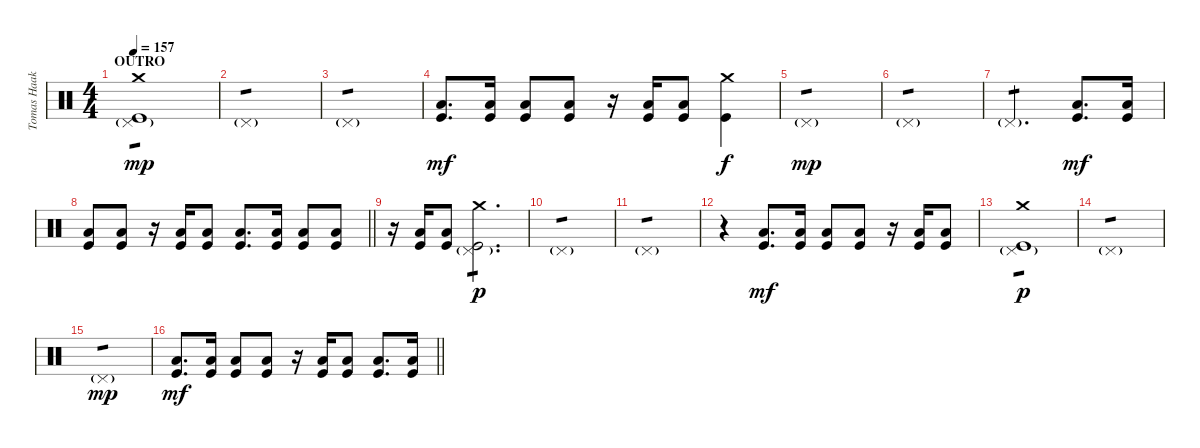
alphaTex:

\track ("Tomas Haake (Drums)" "Tomas Haak") {instrument percussion}
\staff {score}
\articulation defaults
\ts (4 4)
\section ("" "OUTRO")
\tempo 157
\clef neutral
\ks c
("Crash medium (hit)" "Pedal Hi-Hat (hit)"{g} "Kick (hit)").1{tp 1 dy mp} |
"Pedal Hi-Hat (hit)"{g}.1{tp 1} |
"Pedal Hi-Hat (hit)"{g}.1{tp 1} |
("Low Floor Tom (hit)" "Kick (hit)").8{d dy mf} ("Low Floor Tom (hit)" "Kick (hit)").16 ("Low Floor Tom (hit)" "Kick (hit)").8 ("Low Floor Tom (hit)" "Kick (hit)").8 r.16 ("Low Floor Tom (hit)" "Kick (hit)").16 ("Low Floor Tom (hit)" "Kick (hit)").8 ("Crash medium (hit)" "Kick (hit)").4{dy f} |
"Pedal Hi-Hat (hit)"{g}.1{tp 1 dy mp} |
"Pedal Hi-Hat (hit)"{g}.1{tp 1} |
"Pedal Hi-Hat (hit)"{g}.2{d tp 1} ("Low Floor Tom (hit)" "Kick (hit)").8{d dy mf} ("Low Floor Tom (hit)" "Kick (hit)").16 |
\barLineRight lightlight
("Low Floor Tom (hit)" "Kick (hit)").8 ("Low Floor Tom (hit)" "Kick (hit)").8 r.16 ("Low Floor Tom (hit)" "Kick (hit)").16 ("Low Floor Tom (hit)" "Kick (hit)").8 ("Low Floor Tom (hit)" "Kick (hit)").8{d} ("Low Floor Tom (hit)" "Kick (hit)").16 ("Low Floor Tom (hit)" "Kick (hit)").8 ("Low Floor Tom (hit)" "Kick (hit)").8 |
r.16 ("Low Floor Tom (hit)" "Kick (hit)").16 ("Low Floor Tom (hit)" "Kick (hit)").8 ("Crash medium (hit)" "Pedal Hi-Hat (hit)"{g} "Kick (hit)").2{d tp 1 dy p} |
"Pedal Hi-Hat (hit)"{g}.1{tp 1} |
"Pedal Hi-Hat (hit)"{g}.1{tp 1} |
r.4 ("Low Floor Tom (hit)" "Kick (hit)").8{d dy mf} ("Low Floor Tom (hit)" "Kick (hit)").16 ("Low Floor Tom (hit)" "Kick (hit)").8 ("Low Floor Tom (hit)" "Kick (hit)").8 r.16 ("Low Floor Tom (hit)" "Kick (hit)").16 ("Low Floor Tom (hit)" "Kick (hit)").8 |
("Crash medium (hit)" "Pedal Hi-Hat (hit)"{g} "Kick (hit)").1{tp 1 dy p} |
"Pedal Hi-Hat (hit)"{g}.1{tp 1} |
"Pedal Hi-Hat (hit)"{g}.1{tp 1 dy mp} |
\barLineRight lightlight
("Low Floor Tom (hit)" "Kick (hit)").8{d dy mf} ("Low Floor Tom (hit)" "Kick (hit)").16 ("Low Floor Tom (hit)" "Kick (hit)").8 ("Low Floor Tom (hit)" "Kick (hit)").8 r.16 ("Low Floor Tom (hit)" "Kick (hit)").16 ("Low Floor Tom (hit)" "Kick (hit)").8 ("Low Floor Tom (hit)" "Kick (hit)").8{d} ("Low Floor Tom (hit)" "Kick (hit)").16
